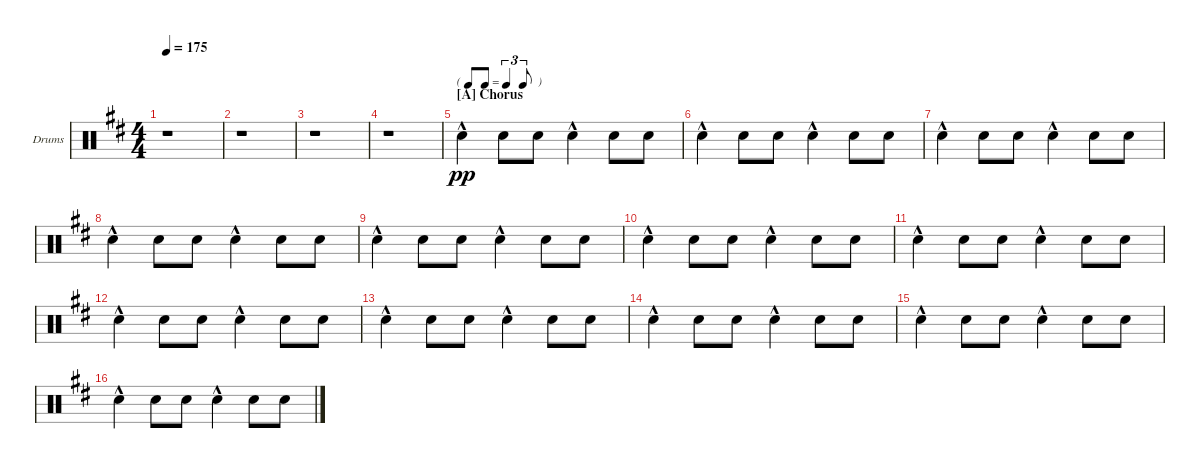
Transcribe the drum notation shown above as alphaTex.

\defaultSystemsLayout 4
\bracketExtendMode groupsimilarinstruments
\firstSystemTrackNameOrientation horizontal
\otherSystemsTrackNameOrientation horizontal
\track ("Drumkit" "Drums") {instrument percussion}
\staff {score}
\articulation defaults
\ts (4 4)
\tempo 175
\clef neutral
\scale
0.333333
\ks d
r.1{dy pp} |
\scale
0.333333 r.1 |
\scale
0.333333 r.1 |
\scale
0.333333 r.1 |
\tf triplet8th
\section ("A" "Chorus")
\scale
0.333333 "Snare (hit) 2"{hac}.4 "Snare (hit) 2".8 "Snare (hit) 2".8 "Snare (hit) 2"{hac}.4 "Snare (hit) 2".8 "Snare (hit) 2".8 |
\scale
0.333333 "Snare (hit) 2"{hac}.4 "Snare (hit) 2".8 "Snare (hit) 2".8 "Snare (hit) 2"{hac}.4 "Snare (hit) 2".8 "Snare (hit) 2".8 |
\scale
0.333333 "Snare (hit) 2"{hac}.4 "Snare (hit) 2".8 "Snare (hit) 2".8 "Snare (hit) 2"{hac}.4 "Snare (hit) 2".8 "Snare (hit) 2".8 |
\scale
0.333333 "Snare (hit) 2"{hac}.4 "Snare (hit) 2".8 "Snare (hit) 2".8 "Snare (hit) 2"{hac}.4 "Snare (hit) 2".8 "Snare (hit) 2".8 |
\scale
0.333333 "Snare (hit) 2"{hac}.4 "Snare (hit) 2".8 "Snare (hit) 2".8 "Snare (hit) 2"{hac}.4 "Snare (hit) 2".8 "Snare (hit) 2".8 |
\scale
0.333333 "Snare (hit) 2"{hac}.4 "Snare (hit) 2".8 "Snare (hit) 2".8 "Snare (hit) 2"{hac}.4 "Snare (hit) 2".8 "Snare (hit) 2".8 |
\scale
0.333333 "Snare (hit) 2"{hac}.4 "Snare (hit) 2".8 "Snare (hit) 2".8 "Snare (hit) 2"{hac}.4 "Snare (hit) 2".8 "Snare (hit) 2".8 |
\scale
0.333333 "Snare (hit) 2"{hac}.4 "Snare (hit) 2".8 "Snare (hit) 2".8 "Snare (hit) 2"{hac}.4 "Snare (hit) 2".8 "Snare (hit) 2".8 |
\scale
0.333333 "Snare (hit) 2"{hac}.4 "Snare (hit) 2".8 "Snare (hit) 2".8 "Snare (hit) 2"{hac}.4 "Snare (hit) 2".8 "Snare (hit) 2".8 |
\scale
0.333333 "Snare (hit) 2"{hac}.4 "Snare (hit) 2".8 "Snare (hit) 2".8 "Snare (hit) 2"{hac}.4 "Snare (hit) 2".8 "Snare (hit) 2".8 |
\scale
0.333333 "Snare (hit) 2"{hac}.4 "Snare (hit) 2".8 "Snare (hit) 2".8 "Snare (hit) 2"{hac}.4 "Snare (hit) 2".8 "Snare (hit) 2".8 |
\scale
0.333333 "Snare (hit) 2"{hac}.4 "Snare (hit) 2".8 "Snare (hit) 2".8 "Snare (hit) 2"{hac}.4 "Snare (hit) 2".8 "Snare (hit) 2".8
